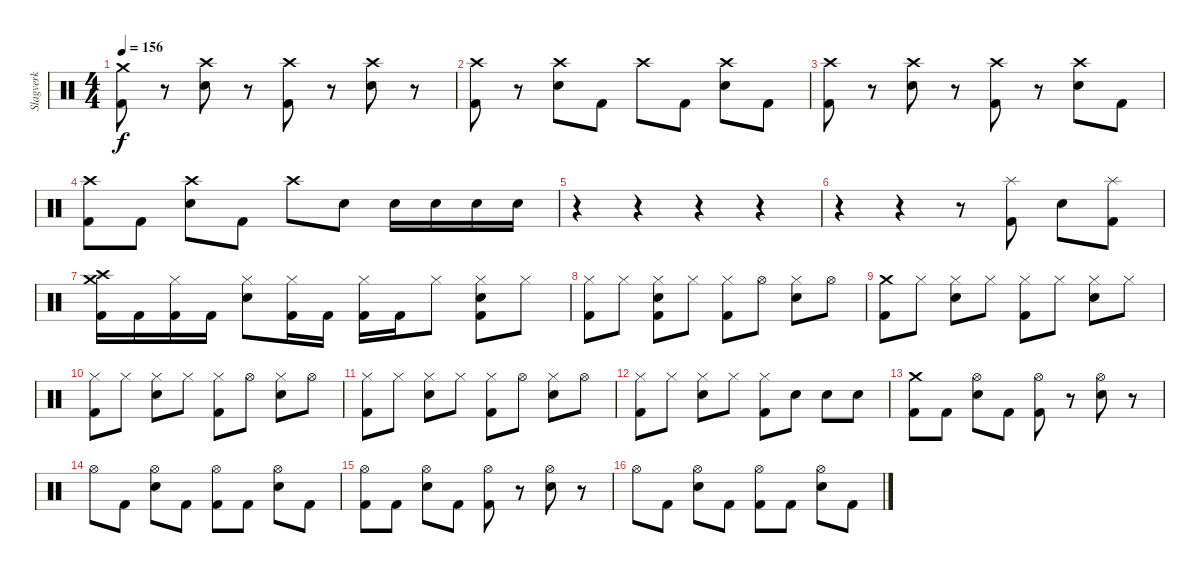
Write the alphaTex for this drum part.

\track ("Slagverk" "Slagverk") {instrument percussion}
\staff {score}
\articulation defaults
\ts (4 4)
\tempo 156
\clef neutral
\ks c
("Crash medium (hit)" "Kick (hit) 2").8{dy f} r.8 ("Crash high (hit)" "Snare (hit) 2").8 r.8 ("Crash high (hit)" "Kick (hit) 2").8 r.8 ("Crash high (hit)" "Snare (hit) 2").8 r.8 |
("Crash high (hit)" "Kick (hit) 2").8 r.8 ("Crash high (hit)" "Snare (hit) 2").8 "Kick (hit) 2".8 "Crash high (hit)".8 "Kick (hit) 2".8 ("Crash high (hit)" "Snare (hit) 2").8 "Kick (hit) 2".8 |
("Crash high (hit)" "Kick (hit) 2").8 r.8 ("Crash high (hit)" "Snare (hit) 2").8 r.8 ("Crash high (hit)" "Kick (hit) 2").8 r.8 ("Crash high (hit)" "Snare (hit) 2").8 "Kick (hit) 2".8 |
("Crash high (hit)" "Kick (hit) 2").8 "Kick (hit) 2".8 ("Crash high (hit)" "Snare (hit) 2").8 "Kick (hit) 2".8 "Crash high (hit)".8 "Snare (hit) 2".8 "Snare (hit) 2".16 "Snare (hit) 2".16 "Snare (hit) 2".16 "Snare (hit) 2".16 |
r.4 r.4 r.4 r.4 |
r.4 r.4 r.8 ("Splash (hit)" "Kick (hit) 2").8 "Snare (hit) 2".8 ("Splash (hit)" "Kick (hit) 2").8 |
("Crash medium (hit)" "Crash high (hit)" "Kick (hit) 2").16 "Kick (hit) 2".16 ("Hi-Hat (closed)" "Kick (hit) 2").16 "Kick (hit) 2".16 ("Hi-Hat (closed)" "Snare (hit) 2").8 ("Hi-Hat (closed)" "Kick (hit) 2").16 "Kick (hit) 2".16 ("Hi-Hat (closed)" "Kick (hit) 2").16 "Kick (hit) 2".16 "Hi-Hat (closed)".8 ("Hi-Hat (closed)" "Snare (hit) 2" "Kick (hit) 2").8 "Hi-Hat (closed)".8 |
("Hi-Hat (closed)" "Kick (hit) 2").8 "Hi-Hat (closed)".8 ("Hi-Hat (closed)" "Snare (hit) 2" "Kick (hit) 2").8 "Hi-Hat (closed)".8 ("Hi-Hat (closed)" "Kick (hit) 2").8 "Hi-Hat (open)".8 ("Hi-Hat (closed)" "Snare (hit) 2").8 "Hi-Hat (open)".8 |
("Crash medium (hit)" "Kick (hit) 2").8 "Hi-Hat (closed)".8 ("Hi-Hat (closed)" "Snare (hit) 2").8 "Hi-Hat (closed)".8 ("Hi-Hat (closed)" "Kick (hit) 2").8 "Hi-Hat (closed)".8 ("Hi-Hat (closed)" "Snare (hit) 2").8 "Hi-Hat (closed)".8 |
("Hi-Hat (closed)" "Kick (hit) 2").8 "Hi-Hat (closed)".8 ("Hi-Hat (closed)" "Snare (hit) 2").8 "Hi-Hat (closed)".8 ("Hi-Hat (closed)" "Kick (hit) 2").8 "Hi-Hat (open)".8 ("Hi-Hat (closed)" "Snare (hit) 2").8 "Hi-Hat (open)".8 |
("Hi-Hat (closed)" "Kick (hit) 2").8 "Hi-Hat (closed)".8 ("Hi-Hat (closed)" "Snare (hit) 2").8 "Hi-Hat (closed)".8 ("Hi-Hat (closed)" "Kick (hit) 2").8 "Hi-Hat (open)".8 ("Hi-Hat (closed)" "Snare (hit) 2").8 "Hi-Hat (open)".8 |
("Hi-Hat (closed)" "Kick (hit) 2").8 "Hi-Hat (closed)".8 ("Hi-Hat (closed)" "Snare (hit) 2").8 "Hi-Hat (closed)".8 ("Hi-Hat (closed)" "Kick (hit) 2").8 "Snare (hit) 2".8 "Snare (hit) 2".8 "Snare (hit) 2".8 |
("Crash medium (hit)" "Kick (hit) 2").8 "Kick (hit) 2".8 ("Hi-Hat (open)" "Snare (hit) 2").8 "Kick (hit) 2".8 ("Hi-Hat (open)" "Kick (hit) 2").8 r.8 ("Hi-Hat (open)" "Snare (hit) 2").8 r.8 |
"Hi-Hat (open)".8 "Kick (hit) 2".8 ("Hi-Hat (open)" "Snare (hit) 2").8 "Kick (hit) 2".8 ("Hi-Hat (open)" "Kick (hit) 2").8 "Kick (hit) 2".8 ("Hi-Hat (open)" "Snare (hit) 2").8 "Kick (hit) 2".8 |
("Hi-Hat (open)" "Kick (hit) 2").8 "Kick (hit) 2".8 ("Hi-Hat (open)" "Snare (hit) 2").8 "Kick (hit) 2".8 ("Hi-Hat (open)" "Kick (hit) 2").8 r.8 ("Hi-Hat (open)" "Snare (hit) 2").8 r.8 |
"Hi-Hat (open)".8 "Kick (hit) 2".8 ("Hi-Hat (open)" "Snare (hit) 2").8 "Kick (hit) 2".8 ("Hi-Hat (open)" "Kick (hit) 2").8 "Kick (hit) 2".8 ("Hi-Hat (open)" "Snare (hit) 2").8 "Kick (hit) 2".8
